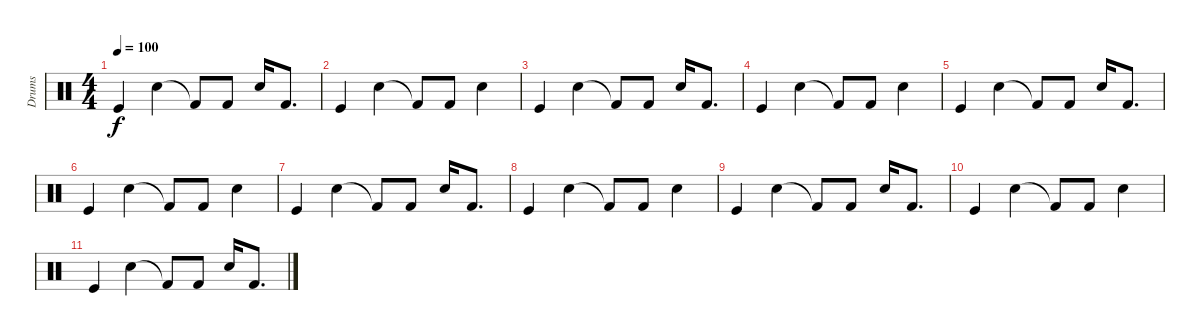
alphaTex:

\track ("Drums" "Drums") {instrument percussion}
\staff {score}
\articulation defaults
\ts (4 4)
\tempo 100
\clef neutral
\ks c "Kick (hit)".4{dy f} "Snare (hit) 2".4 "Kick (hit) 2"{t}.8 "Kick (hit) 2".8 "Snare (hit) 2".16 "Kick (hit) 2".8{d}
|
"Kick (hit)".4 "Snare (hit) 2".4 "Kick (hit) 2"{t}.8 "Kick (hit) 2".8 "Snare (hit) 2".4 |
"Kick (hit)".4 "Snare (hit) 2".4 "Kick (hit) 2"{t}.8 "Kick (hit) 2".8 "Snare (hit) 2".16 "Kick (hit) 2".8{d} |
"Kick (hit)".4 "Snare (hit) 2".4 "Kick (hit) 2"{t}.8 "Kick (hit) 2".8 "Snare (hit) 2".4 |
"Kick (hit)".4 "Snare (hit) 2".4 "Kick (hit) 2"{t}.8 "Kick (hit) 2".8 "Snare (hit) 2".16 "Kick (hit) 2".8{d} |
"Kick (hit)".4 "Snare (hit) 2".4 "Kick (hit) 2"{t}.8 "Kick (hit) 2".8 "Snare (hit) 2".4 |
"Kick (hit)".4 "Snare (hit) 2".4 "Kick (hit) 2"{t}.8 "Kick (hit) 2".8 "Snare (hit) 2".16 "Kick (hit) 2".8{d} |
"Kick (hit)".4 "Snare (hit) 2".4 "Kick (hit) 2"{t}.8 "Kick (hit) 2".8 "Snare (hit) 2".4 |
"Kick (hit)".4 "Snare (hit) 2".4 "Kick (hit) 2"{t}.8 "Kick (hit) 2".8 "Snare (hit) 2".16 "Kick (hit) 2".8{d} |
"Kick (hit)".4 "Snare (hit) 2".4 "Kick (hit) 2"{t}.8 "Kick (hit) 2".8 "Snare (hit) 2".4 |
"Kick (hit)".4 "Snare (hit) 2".4 "Kick (hit) 2"{t}.8 "Kick (hit) 2".8 "Snare (hit) 2".16 "Kick (hit) 2".8{d}
